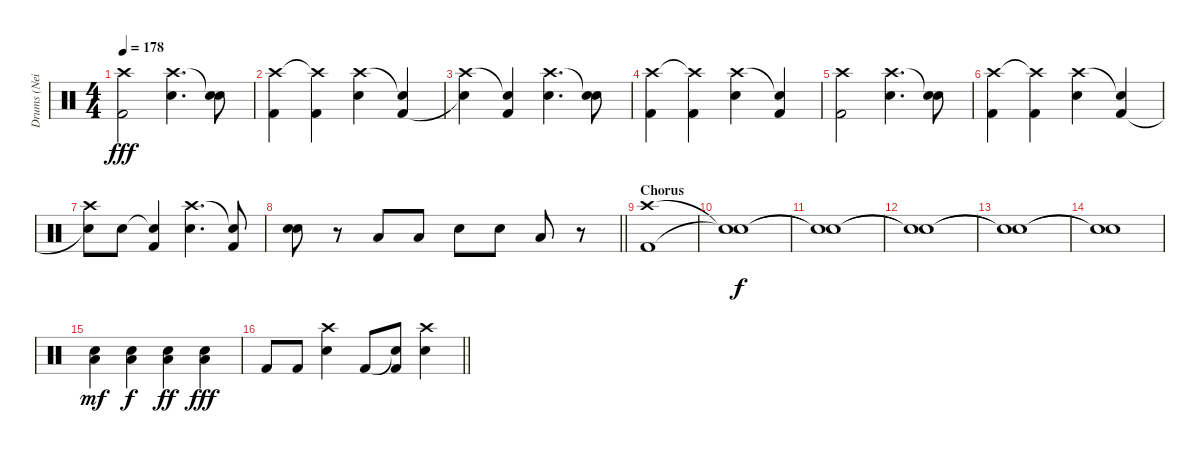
\track ("Drums (Neil Sanderson)" "Drums (Nei") {instrument percussion}
\staff {score}
\articulation defaults
\ts (4 4)
\tempo 178
\clef neutral
\ks c
("Crash high (hit)" "Kick (hit) 2").2{dy fff} ("Crash high (hit)" "Snare (hit) 2").4{d} ("Snare (hit)"{t} "Snare (hit) 2").8 |
("Crash high (hit)" "Kick (hit) 2").4 ("Crash high (hit)"{t} "Kick (hit) 2").4 ("Crash high (hit)" "Snare (hit) 2").4 ("Snare (hit)"{t} "Kick (hit) 2").4 |
("Crash high (hit)" "Snare (hit)"{t}).4 ("Snare (hit)"{t} "Kick (hit) 2").4 ("Crash high (hit)" "Snare (hit) 2").4{d} ("Snare (hit)"{t} "Snare (hit) 2").8 |
("Crash high (hit)" "Kick (hit) 2").4 ("Crash high (hit)"{t} "Kick (hit) 2").4 ("Crash high (hit)" "Snare (hit) 2").4 ("Snare (hit)"{t} "Kick (hit) 2").4 |
("Crash high (hit)" "Kick (hit) 2").2 ("Crash high (hit)" "Snare (hit) 2").4{d} ("Snare (hit)"{t} "Snare (hit) 2").8 |
("Crash high (hit)" "Kick (hit) 2").4 ("Crash high (hit)"{t} "Kick (hit) 2").4 ("Crash high (hit)" "Snare (hit) 2").4 ("Snare (hit)"{t} "Kick (hit) 2").4 |
("Crash high (hit)" "Snare (hit)"{t}).8 "Snare (hit) 2".8 ("Snare (hit)"{t} "Kick (hit) 2").4 ("Crash high (hit)" "Snare (hit) 2").4{d} ("Snare (hit)"{t} "Kick (hit) 2").8 |
\barLineRight lightlight
("Snare (hit) 2" "Snare (hit) 2").8{bd 240} r.8 "Low Tom (hit)".8 "Low Tom (hit)".8 "Snare (hit) 2".8 "Snare (hit) 2".8 "Low Tom (hit)".8 r.8 |
\section ("" "Chorus")
("Crash high (hit)" "Kick (hit) 2").1 |
("Snare (hit)"{t} "Snare (hit)"{t}).1{dy f} |
("Snare (hit)"{t} "Snare (hit)"{t}).1 |
("Snare (hit)"{t} "Snare (hit)"{t}).1 |
("Snare (hit)"{t} "Snare (hit)"{t}).1 |
("Snare (hit)"{t} "Snare (hit)"{t}).1 |
("Snare (hit) 2" "Low Floor Tom (hit)").4{dy mf} ("Snare (hit) 2" "Low Floor Tom (hit)").4{dy f} ("Snare (hit) 2" "Low Floor Tom (hit)").4{dy ff} ("Snare (hit) 2" "Low Floor Tom (hit)").4{dy fff} |
\barLineRight lightlight "Kick (hit) 2".8 "Kick (hit) 2".8
("Crash high (hit)" "Snare (hit) 2").4 "Kick (hit) 2".8 ("Snare (hit)"{t} "Kick (hit) 2").8 ("Crash high (hit)" "Snare (hit) 2").4
